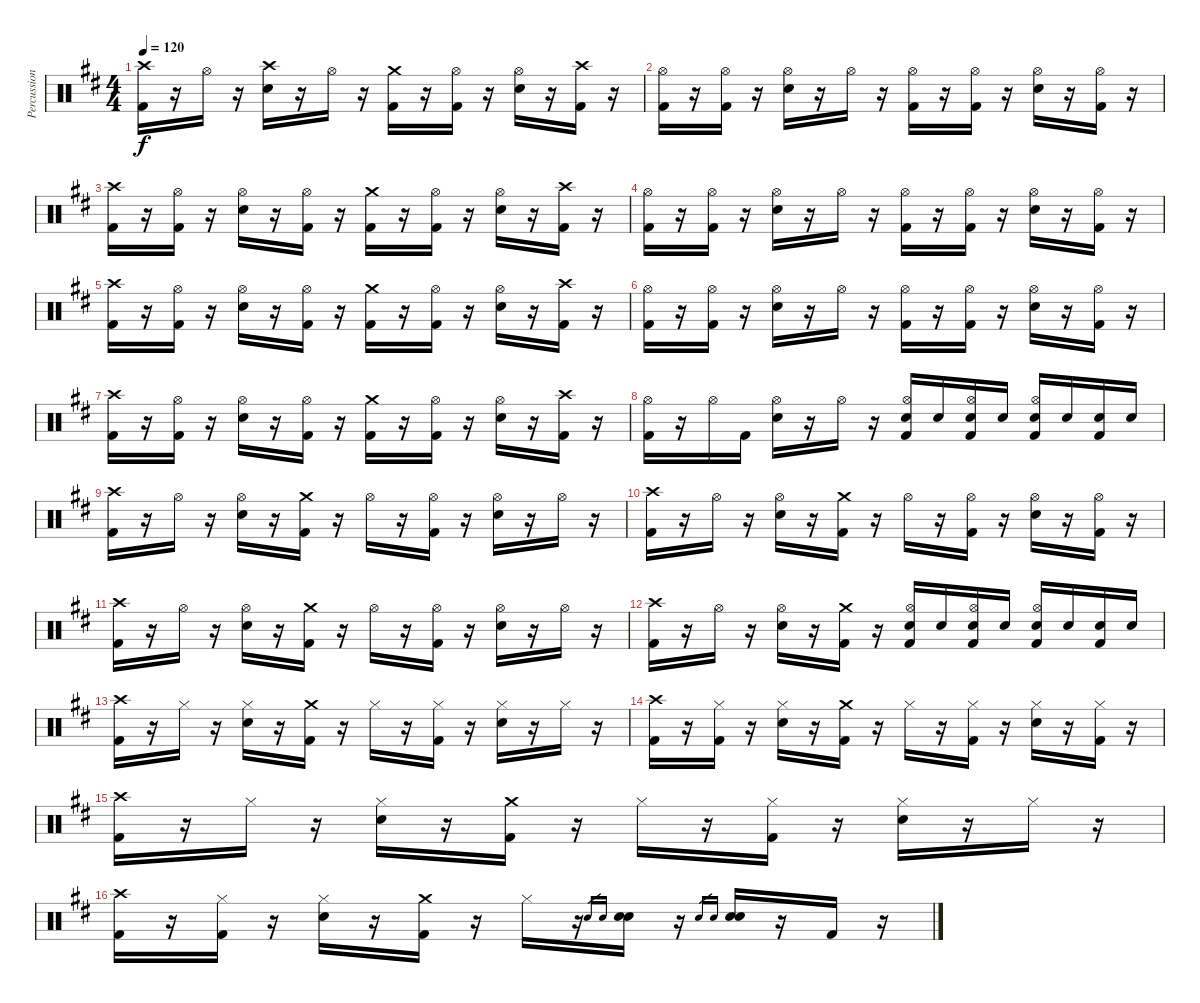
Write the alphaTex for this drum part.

\track ("Percussion" "Percussion") {instrument percussion}
\staff {score}
\articulation defaults
\ts (4 4)
\tempo 120
\clef neutral
\ks d
("Crash high (hit)" "Kick (hit) 2").16{dy f} r.16 "Hi-Hat (open)".16 r.16 ("Crash high (hit)" "Snare (hit) 2").16 r.16 "Hi-Hat (open)".16 r.16 ("Crash medium (hit)" "Kick (hit) 2").16 r.16 ("Hi-Hat (open)" "Kick (hit) 2").16 r.16 ("Hi-Hat (open)" "Snare (hit) 2").16 r.16 ("Crash high (hit)" "Kick (hit) 2").16 r.16 |
("Hi-Hat (open)" "Kick (hit) 2").16 r.16 ("Hi-Hat (open)" "Kick (hit) 2").16 r.16 ("Hi-Hat (open)" "Snare (hit) 2").16 r.16 "Hi-Hat (open)".16 r.16 ("Hi-Hat (open)" "Kick (hit) 2").16 r.16 ("Hi-Hat (open)" "Kick (hit) 2").16 r.16 ("Hi-Hat (open)" "Snare (hit) 2").16 r.16 ("Hi-Hat (open)" "Kick (hit) 2").16 r.16 |
("Crash high (hit)" "Kick (hit) 2").16 r.16 ("Hi-Hat (open)" "Kick (hit) 2").16 r.16 ("Hi-Hat (open)" "Snare (hit) 2").16 r.16 ("Hi-Hat (open)" "Kick (hit) 2").16 r.16 ("Crash medium (hit)" "Kick (hit) 2").16 r.16 ("Hi-Hat (open)" "Kick (hit) 2").16 r.16 ("Hi-Hat (open)" "Snare (hit) 2").16 r.16 ("Crash high (hit)" "Kick (hit) 2").16 r.16 |
("Hi-Hat (open)" "Kick (hit) 2").16 r.16 ("Hi-Hat (open)" "Kick (hit) 2").16 r.16 ("Hi-Hat (open)" "Snare (hit) 2").16 r.16 "Hi-Hat (open)".16 r.16 ("Hi-Hat (open)" "Kick (hit) 2").16 r.16 ("Hi-Hat (open)" "Kick (hit) 2").16 r.16 ("Hi-Hat (open)" "Snare (hit) 2").16 r.16 ("Hi-Hat (open)" "Kick (hit) 2").16 r.16 |
("Crash high (hit)" "Kick (hit) 2").16 r.16 ("Hi-Hat (open)" "Kick (hit) 2").16 r.16 ("Hi-Hat (open)" "Snare (hit) 2").16 r.16 ("Hi-Hat (open)" "Kick (hit) 2").16 r.16 ("Crash medium (hit)" "Kick (hit) 2").16 r.16 ("Hi-Hat (open)" "Kick (hit) 2").16 r.16 ("Hi-Hat (open)" "Snare (hit) 2").16 r.16 ("Crash high (hit)" "Kick (hit) 2").16 r.16 |
("Hi-Hat (open)" "Kick (hit) 2").16 r.16 ("Hi-Hat (open)" "Kick (hit) 2").16 r.16 ("Hi-Hat (open)" "Snare (hit) 2").16 r.16 "Hi-Hat (open)".16 r.16 ("Hi-Hat (open)" "Kick (hit) 2").16 r.16 ("Hi-Hat (open)" "Kick (hit) 2").16 r.16 ("Hi-Hat (open)" "Snare (hit) 2").16 r.16 ("Hi-Hat (open)" "Kick (hit) 2").16 r.16 |
("Crash high (hit)" "Kick (hit) 2").16 r.16 ("Hi-Hat (open)" "Kick (hit) 2").16 r.16 ("Hi-Hat (open)" "Snare (hit) 2").16 r.16 ("Hi-Hat (open)" "Kick (hit) 2").16 r.16 ("Crash medium (hit)" "Kick (hit) 2").16 r.16 ("Hi-Hat (open)" "Kick (hit) 2").16 r.16 ("Hi-Hat (open)" "Snare (hit) 2").16 r.16 ("Crash high (hit)" "Kick (hit) 2").16 r.16 |
("Hi-Hat (open)" "Kick (hit) 2").16 r.16 "Hi-Hat (open)".16 "Kick (hit) 2".16 ("Hi-Hat (open)" "Snare (hit) 2").16 r.16 "Hi-Hat (open)".16 r.16 ("Hi-Hat (open)" "Snare (hit) 2" "Kick (hit) 2").16 "Snare (hit) 2".16 ("Hi-Hat (open)" "Snare (hit) 2" "Kick (hit) 2").16 "Snare (hit) 2".16 ("Hi-Hat (open)" "Snare (hit) 2" "Kick (hit) 2").16 "Snare (hit) 2".16 ("Snare (hit) 2" "Kick (hit) 2").16 "Snare (hit) 2".16 |
("Crash high (hit)" "Kick (hit) 2").16 r.16 "Hi-Hat (open)".16 r.16 ("Hi-Hat (open)" "Snare (hit) 2").16 r.16 ("Crash medium (hit)" "Kick (hit) 2").16 r.16 "Hi-Hat (open)".16 r.16 ("Hi-Hat (open)" "Kick (hit) 2").16 r.16 ("Hi-Hat (open)" "Snare (hit) 2").16 r.16 "Hi-Hat (open)".16 r.16 |
("Crash high (hit)" "Kick (hit) 2").16 r.16 "Hi-Hat (open)".16 r.16 ("Hi-Hat (open)" "Snare (hit) 2").16 r.16 ("Crash medium (hit)" "Kick (hit) 2").16 r.16 "Hi-Hat (open)".16 r.16 ("Hi-Hat (open)" "Kick (hit) 2").16 r.16 ("Hi-Hat (open)" "Snare (hit) 2").16 r.16 ("Hi-Hat (open)" "Kick (hit) 2").16 r.16 |
("Crash high (hit)" "Kick (hit) 2").16 r.16 "Hi-Hat (open)".16 r.16 ("Hi-Hat (open)" "Snare (hit) 2").16 r.16 ("Crash medium (hit)" "Kick (hit) 2").16 r.16 "Hi-Hat (open)".16 r.16 ("Hi-Hat (open)" "Kick (hit) 2").16 r.16 ("Hi-Hat (open)" "Snare (hit) 2").16 r.16 "Hi-Hat (open)".16 r.16 |
("Crash high (hit)" "Kick (hit) 2").16 r.16 "Hi-Hat (open)".16 r.16 ("Hi-Hat (open)" "Snare (hit) 2").16 r.16 ("Crash medium (hit)" "Kick (hit) 2").16 r.16 ("Hi-Hat (open)" "Snare (hit) 2" "Kick (hit) 2").16 "Snare (hit) 2".16 ("Hi-Hat (open)" "Snare (hit) 2" "Kick (hit) 2").16 "Snare (hit) 2".16 ("Hi-Hat (open)" "Snare (hit) 2" "Kick (hit) 2").16 "Snare (hit) 2".16 ("Snare (hit) 2" "Kick (hit) 2").16 "Snare (hit) 2".16 |
("Crash high (hit)" "Kick (hit) 2").16 r.16 "Hi-Hat (closed)".16 r.16 ("Hi-Hat (closed)" "Snare (hit) 2").16 r.16 ("Crash medium (hit)" "Kick (hit) 2").16 r.16 "Hi-Hat (closed)".16 r.16 ("Hi-Hat (closed)" "Kick (hit) 2").16 r.16 ("Hi-Hat (closed)" "Snare (hit) 2").16 r.16 "Hi-Hat (closed)".16 r.16 |
("Crash high (hit)" "Kick (hit) 2").16 r.16 ("Hi-Hat (closed)" "Kick (hit) 2").16 r.16 ("Hi-Hat (closed)" "Snare (hit) 2").16 r.16 ("Crash medium (hit)" "Kick (hit) 2").16 r.16 "Hi-Hat (closed)".16 r.16 ("Hi-Hat (closed)" "Kick (hit) 2").16 r.16 ("Hi-Hat (closed)" "Snare (hit) 2").16 r.16 ("Hi-Hat (closed)" "Kick (hit) 2").16 r.16 |
("Crash high (hit)" "Kick (hit) 2").16 r.16 "Hi-Hat (closed)".16 r.16 ("Hi-Hat (closed)" "Snare (hit) 2").16 r.16 ("Crash medium (hit)" "Kick (hit) 2").16 r.16 "Hi-Hat (closed)".16 r.16 ("Hi-Hat (closed)" "Kick (hit) 2").16 r.16 ("Hi-Hat (closed)" "Snare (hit) 2").16 r.16 "Hi-Hat (closed)".16 r.16 |
("Crash high (hit)" "Kick (hit) 2").16 r.16 ("Hi-Hat (closed)" "Kick (hit) 2").16 r.16 ("Hi-Hat (closed)" "Snare (hit) 2").16 r.16 ("Crash medium (hit)" "Kick (hit) 2").16 r.16 "Hi-Hat (closed)".16 r.16 "Electric Snare (hit)".16{gr} "Snare (hit) 2".16{gr} ("Electric Snare (hit)" "Snare (hit) 2").16 r.16 "Electric Snare (hit)".16{gr} "Snare (hit) 2".16{gr} ("Electric Snare (hit)" "Snare (hit) 2").16 r.16 "Kick (hit) 2".16 r.16
